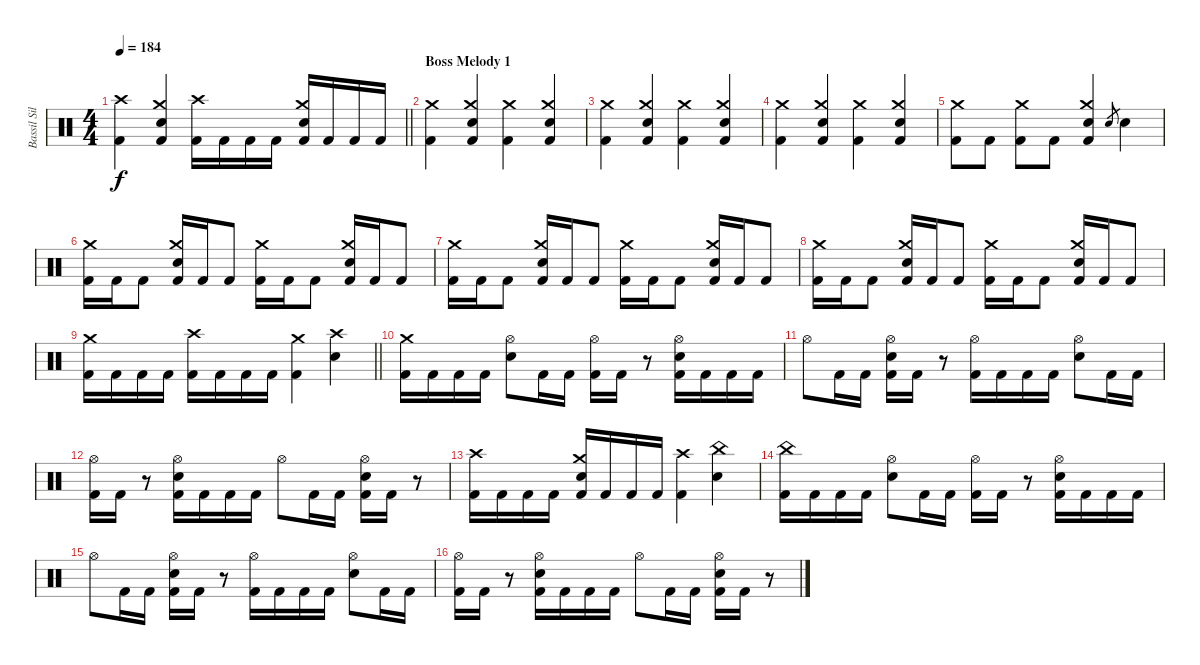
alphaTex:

\track ("Bassil Silver-Hajo" "Bassil Sil") {instrument percussion}
\staff {score}
\articulation defaults
\ts (4 4)
\tempo 184
\clef neutral
\barLineRight lightlight
\ks c
("Crash high (hit)" "Kick (hit) 2").4{dy f} ("Crash medium (hit)" "Snare (hit) 2" "Kick (hit) 2").4 ("Crash high (hit)" "Kick (hit) 2").16 "Kick (hit) 2".16 "Kick (hit) 2".16 "Kick (hit) 2".16 ("Crash medium (hit)" "Snare (hit) 2" "Kick (hit) 2").16 "Kick (hit) 2".16 "Kick (hit) 2".16 "Kick (hit) 2".16 |
\section ("" "Boss Melody 1")
("Crash medium (hit)" "Kick (hit) 2").4 ("Crash medium (hit)" "Snare (hit) 2" "Kick (hit) 2").4 ("Crash medium (hit)" "Kick (hit) 2").4 ("Crash medium (hit)" "Snare (hit) 2" "Kick (hit) 2").4 |
("Crash medium (hit)" "Kick (hit) 2").4 ("Crash medium (hit)" "Snare (hit) 2" "Kick (hit) 2").4 ("Crash medium (hit)" "Kick (hit) 2").4 ("Crash medium (hit)" "Snare (hit) 2" "Kick (hit) 2").4 |
("Crash medium (hit)" "Kick (hit) 2").4 ("Crash medium (hit)" "Snare (hit) 2" "Kick (hit) 2").4 ("Crash medium (hit)" "Kick (hit) 2").4 ("Crash medium (hit)" "Snare (hit) 2" "Kick (hit) 2").4 |
("Crash medium (hit)" "Kick (hit) 2").8 "Kick (hit) 2".8 ("Crash medium (hit)" "Kick (hit) 2").8 "Kick (hit) 2".8 ("Crash medium (hit)" "Snare (hit) 2" "Kick (hit) 2").4 "Snare (hit) 2".8{gr} "Snare (hit) 2".4 |
("Crash medium (hit)" "Kick (hit) 2").16 "Kick (hit) 2".16 "Kick (hit) 2".8 ("Crash medium (hit)" "Snare (hit) 2" "Kick (hit) 2").16 "Kick (hit) 2".16 "Kick (hit) 2".8 ("Crash medium (hit)" "Kick (hit) 2").16 "Kick (hit) 2".16 "Kick (hit) 2".8 ("Crash medium (hit)" "Snare (hit) 2" "Kick (hit) 2").16 "Kick (hit) 2".16 "Kick (hit) 2".8 |
("Crash medium (hit)" "Kick (hit) 2").16 "Kick (hit) 2".16 "Kick (hit) 2".8 ("Crash medium (hit)" "Snare (hit) 2" "Kick (hit) 2").16 "Kick (hit) 2".16 "Kick (hit) 2".8 ("Crash medium (hit)" "Kick (hit) 2").16 "Kick (hit) 2".16 "Kick (hit) 2".8 ("Crash medium (hit)" "Snare (hit) 2" "Kick (hit) 2").16 "Kick (hit) 2".16 "Kick (hit) 2".8 |
("Crash medium (hit)" "Kick (hit) 2").16 "Kick (hit) 2".16 "Kick (hit) 2".8 ("Crash medium (hit)" "Snare (hit) 2" "Kick (hit) 2").16 "Kick (hit) 2".16 "Kick (hit) 2".8 ("Crash medium (hit)" "Kick (hit) 2").16 "Kick (hit) 2".16 "Kick (hit) 2".8 ("Crash medium (hit)" "Snare (hit) 2" "Kick (hit) 2").16 "Kick (hit) 2".16 "Kick (hit) 2".8 |
\barLineRight lightlight
("Crash medium (hit)" "Kick (hit) 2").16 "Kick (hit) 2".16 "Kick (hit) 2".16 "Kick (hit) 2".16 ("Crash high (hit)" "Kick (hit) 2").16 "Kick (hit) 2".16 "Kick (hit) 2".16 "Kick (hit) 2".16 ("Crash medium (hit)" "Kick (hit) 2").4 ("Crash high (hit)" "Snare (hit) 2").4 |
("Crash medium (hit)" "Kick (hit) 2").16 "Kick (hit) 2".16 "Kick (hit) 2".16 "Kick (hit) 2".16 ("Hi-Hat (open)" "Snare (hit) 2").8 "Kick (hit) 2".16 "Kick (hit) 2".16 ("Hi-Hat (open)" "Kick (hit) 2").16 "Kick (hit) 2".16 r.8 ("Hi-Hat (open)" "Snare (hit) 2" "Kick (hit) 2").16 "Kick (hit) 2".16 "Kick (hit) 2".16 "Kick (hit) 2".16 |
"Hi-Hat (open)".8 "Kick (hit) 2".16 "Kick (hit) 2".16 ("Hi-Hat (open)" "Snare (hit) 2" "Kick (hit) 2").16 "Kick (hit) 2".16 r.8 ("Hi-Hat (open)" "Kick (hit) 2").16 "Kick (hit) 2".16 "Kick (hit) 2".16 "Kick (hit) 2".16 ("Hi-Hat (open)" "Snare (hit) 2").8 "Kick (hit) 2".16 "Kick (hit) 2".16 |
("Hi-Hat (open)" "Kick (hit) 2").16 "Kick (hit) 2".16 r.8 ("Hi-Hat (open)" "Snare (hit) 2" "Kick (hit) 2").16 "Kick (hit) 2".16 "Kick (hit) 2".16 "Kick (hit) 2".16 "Hi-Hat (open)".8 "Kick (hit) 2".16 "Kick (hit) 2".16 ("Hi-Hat (open)" "Snare (hit) 2" "Kick (hit) 2").16 "Kick (hit) 2".16 r.8 |
("Crash high (hit)" "Kick (hit) 2").16 "Kick (hit) 2".16 "Kick (hit) 2".16 "Kick (hit) 2".16 ("Crash medium (hit)" "Snare (hit) 2" "Kick (hit) 2").16 "Kick (hit) 2".16 "Kick (hit) 2".16 "Kick (hit) 2".16 ("Crash high (hit)" "Kick (hit) 2").4 ("China (hit)" "Snare (hit) 2").4 |
("China (hit)" "Kick (hit) 2").16 "Kick (hit) 2".16 "Kick (hit) 2".16 "Kick (hit) 2".16 ("Hi-Hat (open)" "Snare (hit) 2").8 "Kick (hit) 2".16 "Kick (hit) 2".16 ("Hi-Hat (open)" "Kick (hit) 2").16 "Kick (hit) 2".16 r.8 ("Hi-Hat (open)" "Snare (hit) 2" "Kick (hit) 2").16 "Kick (hit) 2".16 "Kick (hit) 2".16 "Kick (hit) 2".16 |
"Hi-Hat (open)".8 "Kick (hit) 2".16 "Kick (hit) 2".16 ("Hi-Hat (open)" "Snare (hit) 2" "Kick (hit) 2").16 "Kick (hit) 2".16 r.8 ("Hi-Hat (open)" "Kick (hit) 2").16 "Kick (hit) 2".16 "Kick (hit) 2".16 "Kick (hit) 2".16 ("Hi-Hat (open)" "Snare (hit) 2").8 "Kick (hit) 2".16 "Kick (hit) 2".16 |
("Hi-Hat (open)" "Kick (hit) 2").16 "Kick (hit) 2".16 r.8 ("Hi-Hat (open)" "Snare (hit) 2" "Kick (hit) 2").16 "Kick (hit) 2".16 "Kick (hit) 2".16 "Kick (hit) 2".16 "Hi-Hat (open)".8 "Kick (hit) 2".16 "Kick (hit) 2".16 ("Hi-Hat (open)" "Snare (hit) 2" "Kick (hit) 2").16 "Kick (hit) 2".16 r.8
